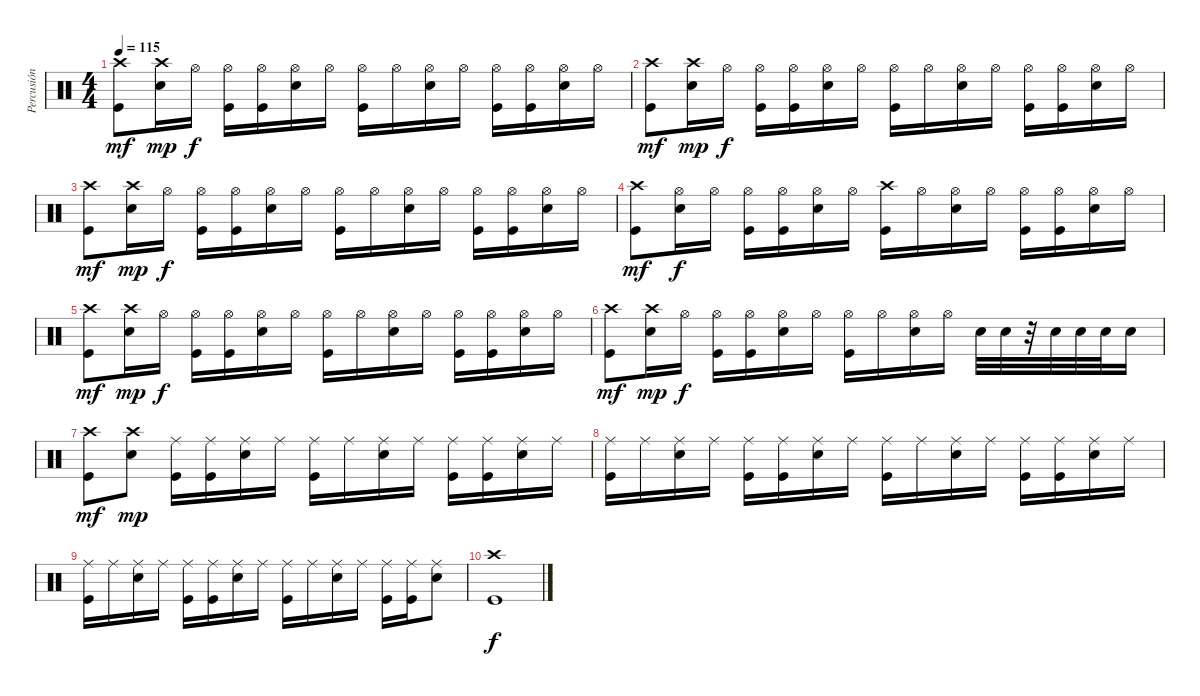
\track ("Percusión" "Percusión") {instrument percussion}
\staff {score}
\articulation defaults
\ts (4 4)
\tempo 115
\clef neutral
\ks c
("Kick (hit)" "Crash high (hit)").8{dy mf} ("Snare (hit) 2" "Crash high (hit)").16{dy mp} "Hi-Hat (open)".16{dy f} ("Kick (hit)" "Hi-Hat (open)").16 ("Kick (hit)" "Hi-Hat (open)").16 ("Snare (hit) 2" "Hi-Hat (open)").16 "Hi-Hat (open)".16 ("Kick (hit)" "Hi-Hat (open)").16 "Hi-Hat (open)".16 ("Snare (hit) 2" "Hi-Hat (open)").16 "Hi-Hat (open)".16 ("Kick (hit)" "Hi-Hat (open)").16 ("Kick (hit)" "Hi-Hat (open)").16 ("Snare (hit) 2" "Hi-Hat (open)").16 "Hi-Hat (open)".16 |
("Kick (hit)" "Crash high (hit)").8{dy mf} ("Snare (hit) 2" "Crash high (hit)").16{dy mp} "Hi-Hat (open)".16{dy f} ("Kick (hit)" "Hi-Hat (open)").16 ("Kick (hit)" "Hi-Hat (open)").16 ("Snare (hit) 2" "Hi-Hat (open)").16 "Hi-Hat (open)".16 ("Kick (hit)" "Hi-Hat (open)").16 "Hi-Hat (open)".16 ("Snare (hit) 2" "Hi-Hat (open)").16 "Hi-Hat (open)".16 ("Kick (hit)" "Hi-Hat (open)").16 ("Kick (hit)" "Hi-Hat (open)").16 ("Snare (hit) 2" "Hi-Hat (open)").16 "Hi-Hat (open)".16 |
("Kick (hit)" "Crash high (hit)").8{dy mf} ("Snare (hit) 2" "Crash high (hit)").16{dy mp} "Hi-Hat (open)".16{dy f} ("Kick (hit)" "Hi-Hat (open)").16 ("Kick (hit)" "Hi-Hat (open)").16 ("Snare (hit) 2" "Hi-Hat (open)").16 "Hi-Hat (open)".16 ("Kick (hit)" "Hi-Hat (open)").16 "Hi-Hat (open)".16 ("Snare (hit) 2" "Hi-Hat (open)").16 "Hi-Hat (open)".16 ("Kick (hit)" "Hi-Hat (open)").16 ("Kick (hit)" "Hi-Hat (open)").16 ("Snare (hit) 2" "Hi-Hat (open)").16 "Hi-Hat (open)".16 |
("Kick (hit)" "Crash high (hit)").8{dy mf} ("Snare (hit) 2" "Hi-Hat (open)").16{dy f} "Hi-Hat (open)".16 ("Kick (hit)" "Hi-Hat (open)").16 ("Kick (hit)" "Hi-Hat (open)").16 ("Snare (hit) 2" "Hi-Hat (open)").16 "Hi-Hat (open)".16 ("Kick (hit)" "Crash high (hit)").16 "Hi-Hat (open)".16 ("Snare (hit) 2" "Hi-Hat (open)").16 "Hi-Hat (open)".16 ("Kick (hit)" "Hi-Hat (open)").16 ("Kick (hit)" "Hi-Hat (open)").16 ("Snare (hit) 2" "Hi-Hat (open)").16 "Hi-Hat (open)".16 |
("Kick (hit)" "Crash high (hit)").8{dy mf} ("Snare (hit) 2" "Crash high (hit)").16{dy mp} "Hi-Hat (open)".16{dy f} ("Kick (hit)" "Hi-Hat (open)").16 ("Kick (hit)" "Hi-Hat (open)").16 ("Snare (hit) 2" "Hi-Hat (open)").16 "Hi-Hat (open)".16 ("Kick (hit)" "Hi-Hat (open)").16 "Hi-Hat (open)".16 ("Snare (hit) 2" "Hi-Hat (open)").16 "Hi-Hat (open)".16 ("Kick (hit)" "Hi-Hat (open)").16 ("Kick (hit)" "Hi-Hat (open)").16 ("Snare (hit) 2" "Hi-Hat (open)").16 "Hi-Hat (open)".16 |
("Kick (hit)" "Crash high (hit)").8{dy mf} ("Snare (hit) 2" "Crash high (hit)").16{dy mp} "Hi-Hat (open)".16{dy f} ("Kick (hit)" "Hi-Hat (open)").16 ("Kick (hit)" "Hi-Hat (open)").16 ("Snare (hit) 2" "Hi-Hat (open)").16 "Hi-Hat (open)".16 ("Kick (hit)" "Hi-Hat (open)").16 "Hi-Hat (open)".16 ("Snare (hit) 2" "Hi-Hat (open)").16 "Hi-Hat (open)".16 "Snare (hit) 2".32 "Snare (hit) 2".32 r.32 "Snare (hit) 2".32 "Snare (hit) 2".32 "Snare (hit) 2".32 "Snare (hit) 2".16 |
("Kick (hit)" "Crash high (hit)").8{dy mf} ("Snare (hit) 2" "Crash high (hit)").8{dy mp} ("Kick (hit)" "Ride (middle)").16 ("Kick (hit)" "Ride (middle)").16 ("Snare (hit) 2" "Ride (middle)").16 "Ride (middle)".16 ("Kick (hit)" "Ride (middle)").16 "Ride (middle)".16 ("Snare (hit) 2" "Ride (middle)").16 "Ride (middle)".16 ("Kick (hit)" "Ride (middle)").16 ("Kick (hit)" "Ride (middle)").16 ("Snare (hit) 2" "Ride (middle)").16 "Ride (middle)".16 |
("Kick (hit)" "Ride (middle)").16 "Ride (middle)".16 ("Snare (hit) 2" "Ride (middle)").16 "Ride (middle)".16 ("Kick (hit)" "Ride (middle)").16 ("Kick (hit)" "Ride (middle)").16 ("Snare (hit) 2" "Ride (middle)").16 "Ride (middle)".16 ("Kick (hit)" "Ride (middle)").16 "Ride (middle)".16 ("Snare (hit) 2" "Ride (middle)").16 "Ride (middle)".16 ("Kick (hit)" "Ride (middle)").16 ("Kick (hit)" "Ride (middle)").16 ("Snare (hit) 2" "Ride (middle)").16 "Ride (middle)".16 |
("Kick (hit)" "Ride (middle)").16 "Ride (middle)".16 ("Snare (hit) 2" "Ride (middle)").16 "Ride (middle)".16 ("Kick (hit)" "Ride (middle)").16 ("Kick (hit)" "Ride (middle)").16 ("Snare (hit) 2" "Ride (middle)").16 "Ride (middle)".16 ("Kick (hit)" "Ride (middle)").16 "Ride (middle)".16 ("Snare (hit) 2" "Ride (middle)").16 "Ride (middle)".16 ("Kick (hit)" "Ride (middle)").16 ("Kick (hit)" "Ride (middle)").16 ("Snare (hit) 2" "Ride (middle)").8 |
("Kick (hit)" "Crash high (hit)").1{dy f}
